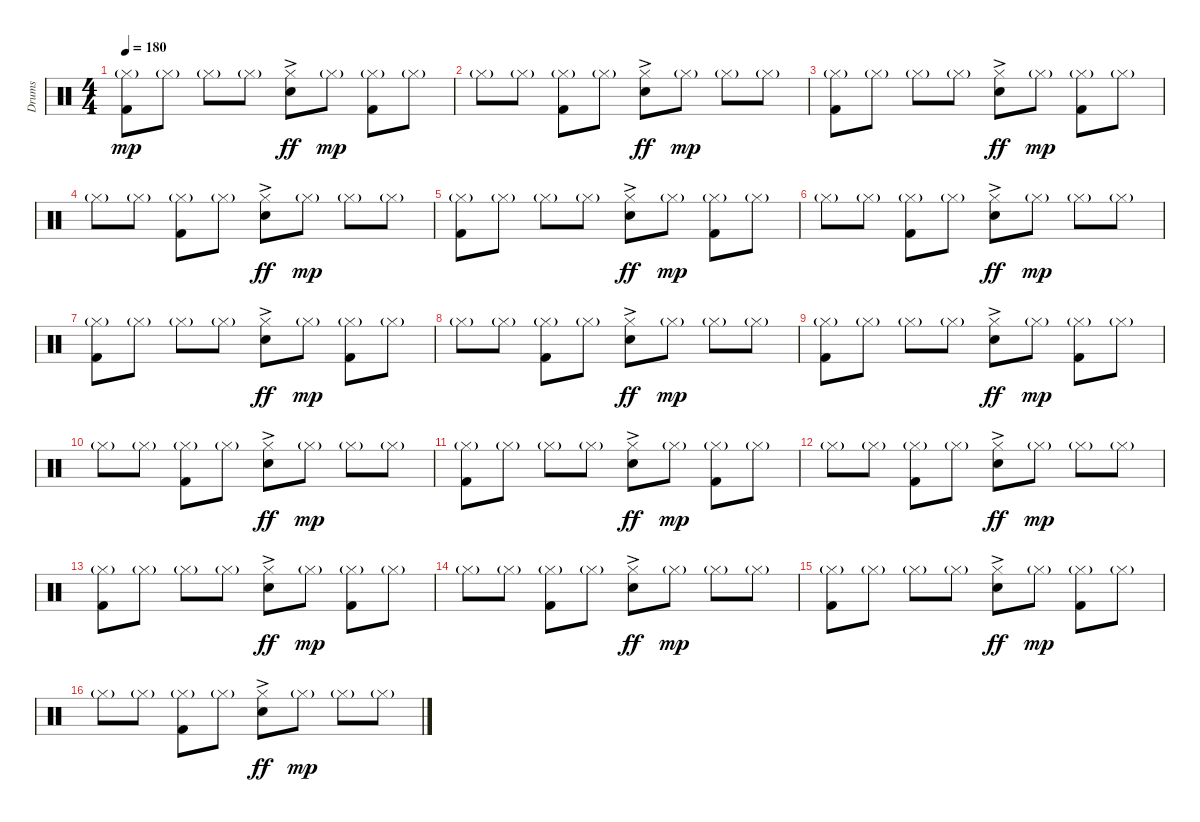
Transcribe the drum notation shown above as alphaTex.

\track ("Drums" "Drums") {instrument percussion}
\staff {score}
\articulation defaults
\ts (4 4)
\tempo 180
\clef neutral
\ks c
("Hi-Hat (closed)"{g} "Kick (hit) 2").8{dy mp} "Hi-Hat (closed)"{g}.8 "Hi-Hat (closed)"{g}.8 "Hi-Hat (closed)"{g}.8 ("Hi-Hat (closed)"{ac} "Snare (hit) 2"{ac}).8{dy ff} "Hi-Hat (closed)"{g}.8{dy mp} ("Hi-Hat (closed)"{g} "Kick (hit) 2").8 "Hi-Hat (closed)"{g}.8 |
"Hi-Hat (closed)"{g}.8 "Hi-Hat (closed)"{g}.8 ("Hi-Hat (closed)"{g} "Kick (hit) 2").8 "Hi-Hat (closed)"{g}.8 ("Hi-Hat (closed)"{ac} "Snare (hit) 2"{ac}).8{dy ff} "Hi-Hat (closed)"{g}.8{dy mp} "Hi-Hat (closed)"{g}.8 "Hi-Hat (closed)"{g}.8 |
("Hi-Hat (closed)"{g} "Kick (hit) 2").8 "Hi-Hat (closed)"{g}.8 "Hi-Hat (closed)"{g}.8 "Hi-Hat (closed)"{g}.8 ("Hi-Hat (closed)"{ac} "Snare (hit) 2"{ac}).8{dy ff} "Hi-Hat (closed)"{g}.8{dy mp} ("Hi-Hat (closed)"{g} "Kick (hit) 2").8 "Hi-Hat (closed)"{g}.8 |
"Hi-Hat (closed)"{g}.8 "Hi-Hat (closed)"{g}.8 ("Hi-Hat (closed)"{g} "Kick (hit) 2").8 "Hi-Hat (closed)"{g}.8 ("Hi-Hat (closed)"{ac} "Snare (hit) 2"{ac}).8{dy ff} "Hi-Hat (closed)"{g}.8{dy mp} "Hi-Hat (closed)"{g}.8 "Hi-Hat (closed)"{g}.8 |
("Hi-Hat (closed)"{g} "Kick (hit) 2").8 "Hi-Hat (closed)"{g}.8 "Hi-Hat (closed)"{g}.8 "Hi-Hat (closed)"{g}.8 ("Hi-Hat (closed)"{ac} "Snare (hit) 2"{ac}).8{dy ff} "Hi-Hat (closed)"{g}.8{dy mp} ("Hi-Hat (closed)"{g} "Kick (hit) 2").8 "Hi-Hat (closed)"{g}.8 |
"Hi-Hat (closed)"{g}.8 "Hi-Hat (closed)"{g}.8 ("Hi-Hat (closed)"{g} "Kick (hit) 2").8 "Hi-Hat (closed)"{g}.8 ("Hi-Hat (closed)"{ac} "Snare (hit) 2"{ac}).8{dy ff} "Hi-Hat (closed)"{g}.8{dy mp} "Hi-Hat (closed)"{g}.8 "Hi-Hat (closed)"{g}.8 |
("Hi-Hat (closed)"{g} "Kick (hit) 2").8 "Hi-Hat (closed)"{g}.8 "Hi-Hat (closed)"{g}.8 "Hi-Hat (closed)"{g}.8 ("Hi-Hat (closed)"{ac} "Snare (hit) 2"{ac}).8{dy ff} "Hi-Hat (closed)"{g}.8{dy mp} ("Hi-Hat (closed)"{g} "Kick (hit) 2").8 "Hi-Hat (closed)"{g}.8 |
"Hi-Hat (closed)"{g}.8 "Hi-Hat (closed)"{g}.8 ("Hi-Hat (closed)"{g} "Kick (hit) 2").8 "Hi-Hat (closed)"{g}.8 ("Hi-Hat (closed)"{ac} "Snare (hit) 2"{ac}).8{dy ff} "Hi-Hat (closed)"{g}.8{dy mp} "Hi-Hat (closed)"{g}.8 "Hi-Hat (closed)"{g}.8 |
("Hi-Hat (closed)"{g} "Kick (hit) 2").8 "Hi-Hat (closed)"{g}.8 "Hi-Hat (closed)"{g}.8 "Hi-Hat (closed)"{g}.8 ("Hi-Hat (closed)"{ac} "Snare (hit) 2"{ac}).8{dy ff} "Hi-Hat (closed)"{g}.8{dy mp} ("Hi-Hat (closed)"{g} "Kick (hit) 2").8 "Hi-Hat (closed)"{g}.8 |
"Hi-Hat (closed)"{g}.8 "Hi-Hat (closed)"{g}.8 ("Hi-Hat (closed)"{g} "Kick (hit) 2").8 "Hi-Hat (closed)"{g}.8 ("Hi-Hat (closed)"{ac} "Snare (hit) 2"{ac}).8{dy ff} "Hi-Hat (closed)"{g}.8{dy mp} "Hi-Hat (closed)"{g}.8 "Hi-Hat (closed)"{g}.8 |
("Hi-Hat (closed)"{g} "Kick (hit) 2").8 "Hi-Hat (closed)"{g}.8 "Hi-Hat (closed)"{g}.8 "Hi-Hat (closed)"{g}.8 ("Hi-Hat (closed)"{ac} "Snare (hit) 2"{ac}).8{dy ff} "Hi-Hat (closed)"{g}.8{dy mp} ("Hi-Hat (closed)"{g} "Kick (hit) 2").8 "Hi-Hat (closed)"{g}.8 |
"Hi-Hat (closed)"{g}.8 "Hi-Hat (closed)"{g}.8 ("Hi-Hat (closed)"{g} "Kick (hit) 2").8 "Hi-Hat (closed)"{g}.8 ("Hi-Hat (closed)"{ac} "Snare (hit) 2"{ac}).8{dy ff} "Hi-Hat (closed)"{g}.8{dy mp} "Hi-Hat (closed)"{g}.8 "Hi-Hat (closed)"{g}.8 |
("Hi-Hat (closed)"{g} "Kick (hit) 2").8 "Hi-Hat (closed)"{g}.8 "Hi-Hat (closed)"{g}.8 "Hi-Hat (closed)"{g}.8 ("Hi-Hat (closed)"{ac} "Snare (hit) 2"{ac}).8{dy ff} "Hi-Hat (closed)"{g}.8{dy mp} ("Hi-Hat (closed)"{g} "Kick (hit) 2").8 "Hi-Hat (closed)"{g}.8 |
"Hi-Hat (closed)"{g}.8 "Hi-Hat (closed)"{g}.8 ("Hi-Hat (closed)"{g} "Kick (hit) 2").8 "Hi-Hat (closed)"{g}.8 ("Hi-Hat (closed)"{ac} "Snare (hit) 2"{ac}).8{dy ff} "Hi-Hat (closed)"{g}.8{dy mp} "Hi-Hat (closed)"{g}.8 "Hi-Hat (closed)"{g}.8 |
("Hi-Hat (closed)"{g} "Kick (hit) 2").8 "Hi-Hat (closed)"{g}.8 "Hi-Hat (closed)"{g}.8 "Hi-Hat (closed)"{g}.8 ("Hi-Hat (closed)"{ac} "Snare (hit) 2"{ac}).8{dy ff} "Hi-Hat (closed)"{g}.8{dy mp} ("Hi-Hat (closed)"{g} "Kick (hit) 2").8 "Hi-Hat (closed)"{g}.8 |
"Hi-Hat (closed)"{g}.8 "Hi-Hat (closed)"{g}.8 ("Hi-Hat (closed)"{g} "Kick (hit) 2").8 "Hi-Hat (closed)"{g}.8 ("Hi-Hat (closed)"{ac} "Snare (hit) 2"{ac}).8{dy ff} "Hi-Hat (closed)"{g}.8{dy mp} "Hi-Hat (closed)"{g}.8 "Hi-Hat (closed)"{g}.8
